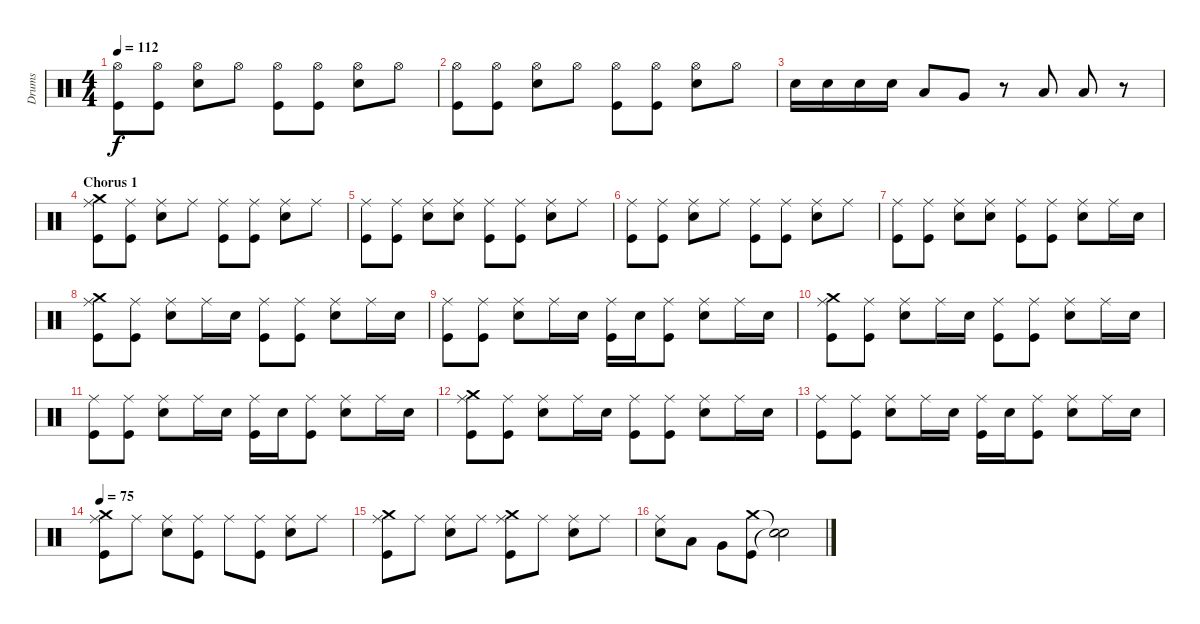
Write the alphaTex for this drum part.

\track ("Drums" "Drums") {instrument percussion}
\staff {score}
\articulation defaults
\ts (4 4)
\tempo 112
\clef neutral
\ks c
("Hi-Hat (open)" "Kick (hit)").8{dy f} ("Hi-Hat (open)" "Kick (hit)").8 ("Hi-Hat (open)" "Snare (hit) 2").8 "Hi-Hat (open)".8 ("Hi-Hat (open)" "Kick (hit)").8 ("Hi-Hat (open)" "Kick (hit)").8 ("Hi-Hat (open)" "Snare (hit) 2").8 "Hi-Hat (open)".8 |
("Hi-Hat (open)" "Kick (hit)").8 ("Hi-Hat (open)" "Kick (hit)").8 ("Hi-Hat (open)" "Snare (hit) 2").8 "Hi-Hat (open)".8 ("Hi-Hat (open)" "Kick (hit)").8 ("Hi-Hat (open)" "Kick (hit)").8 ("Hi-Hat (open)" "Snare (hit) 2").8 "Hi-Hat (open)".8 |
"Snare (hit) 2".16 "Snare (hit) 2".16 "Snare (hit) 2".16 "Snare (hit) 2".16 "Low Tom (hit)".8 "Very Low Tom (hit)".8 r.8 "Low Floor Tom (hit)".8 "Low Floor Tom (hit)".8 r.8 |
\section ("" "Chorus 1")
("Ride (middle)" "Crash medium (hit)" "Kick (hit)").8 ("Ride (middle)" "Kick (hit)").8 ("Ride (middle)" "Snare (hit) 2").8 "Ride (middle)".8 ("Ride (middle)" "Kick (hit)").8 ("Ride (middle)" "Kick (hit)").8 ("Ride (middle)" "Snare (hit) 2").8 "Ride (middle)".8 |
("Ride (middle)" "Kick (hit)").8 ("Ride (middle)" "Kick (hit)").8 ("Ride (middle)" "Snare (hit) 2").8 ("Ride (middle)" "Snare (hit) 2").8 ("Ride (middle)" "Kick (hit)").8 ("Ride (middle)" "Kick (hit)").8 ("Ride (middle)" "Snare (hit) 2").8 "Ride (middle)".8 |
("Ride (middle)" "Kick (hit)").8 ("Ride (middle)" "Kick (hit)").8 ("Ride (middle)" "Snare (hit) 2").8 "Ride (middle)".8 ("Ride (middle)" "Kick (hit)").8 ("Ride (middle)" "Kick (hit)").8 ("Ride (middle)" "Snare (hit) 2").8 "Ride (middle)".8 |
("Ride (middle)" "Kick (hit)").8 ("Ride (middle)" "Kick (hit)").8 ("Ride (middle)" "Snare (hit) 2").8 ("Ride (middle)" "Snare (hit) 2").8 ("Ride (middle)" "Kick (hit)").8 ("Ride (middle)" "Kick (hit)").8 ("Ride (middle)" "Snare (hit) 2").8 "Ride (middle)".16 "Snare (hit) 2".16 |
\section ("" "")
("Ride (middle)" "Crash medium (hit)" "Kick (hit)").8 ("Ride (middle)" "Kick (hit)").8 ("Ride (middle)" "Snare (hit) 2").8 "Ride (middle)".16 "Snare (hit) 2".16 ("Ride (middle)" "Kick (hit)").8 ("Ride (middle)" "Kick (hit)").8 ("Ride (middle)" "Snare (hit) 2").8 "Ride (middle)".16 "Snare (hit) 2".16 |
("Ride (middle)" "Kick (hit)").8 ("Ride (middle)" "Kick (hit)").8 ("Ride (middle)" "Snare (hit) 2").8 "Ride (middle)".16 "Snare (hit) 2".16 ("Ride (middle)" "Kick (hit)").16 "Snare (hit) 2".16 ("Ride (middle)" "Kick (hit)").8 ("Ride (middle)" "Snare (hit) 2").8 "Ride (middle)".16 "Snare (hit) 2".16 |
("Ride (middle)" "Crash medium (hit)" "Kick (hit)").8 ("Ride (middle)" "Kick (hit)").8 ("Ride (middle)" "Snare (hit) 2").8 "Ride (middle)".16 "Snare (hit) 2".16 ("Ride (middle)" "Kick (hit)").8 ("Ride (middle)" "Kick (hit)").8 ("Ride (middle)" "Snare (hit) 2").8 "Ride (middle)".16 "Snare (hit) 2".16 |
("Ride (middle)" "Kick (hit)").8 ("Ride (middle)" "Kick (hit)").8 ("Ride (middle)" "Snare (hit) 2").8 "Ride (middle)".16 "Snare (hit) 2".16 ("Ride (middle)" "Kick (hit)").16 "Snare (hit) 2".16 ("Ride (middle)" "Kick (hit)").8 ("Ride (middle)" "Snare (hit) 2").8 "Ride (middle)".16 "Snare (hit) 2".16 |
("Ride (middle)" "Crash medium (hit)" "Kick (hit)").8 ("Ride (middle)" "Kick (hit)").8 ("Ride (middle)" "Snare (hit) 2").8 "Ride (middle)".16 "Snare (hit) 2".16 ("Ride (middle)" "Kick (hit)").8 ("Ride (middle)" "Kick (hit)").8 ("Ride (middle)" "Snare (hit) 2").8 "Ride (middle)".16 "Snare (hit) 2".16 |
("Ride (middle)" "Kick (hit)").8 ("Ride (middle)" "Kick (hit)").8 ("Ride (middle)" "Snare (hit) 2").8 "Ride (middle)".16 "Snare (hit) 2".16 ("Ride (middle)" "Kick (hit)").16 "Snare (hit) 2".16 ("Ride (middle)" "Kick (hit)").8 ("Ride (middle)" "Snare (hit) 2").8 "Ride (middle)".16 "Snare (hit) 2".16 |
\tempo 75
("Ride (middle)" "Crash medium (hit)" "Kick (hit)").8 "Ride (middle)".8 ("Ride (middle)" "Snare (hit) 2").8 ("Ride (middle)" "Kick (hit)").8 "Ride (middle)".8 ("Ride (middle)" "Kick (hit)").8 ("Ride (middle)" "Snare (hit) 2").8 "Ride (middle)".8 |
("Ride (middle)" "Crash medium (hit)" "Kick (hit)").8 "Ride (middle)".8 ("Ride (middle)" "Snare (hit) 2").8 "Ride (middle)".8 ("Ride (middle)" "Crash medium (hit)" "Kick (hit)").8 "Ride (middle)".8 ("Ride (middle)" "Snare (hit) 2").8 "Ride (middle)".8 |
("Ride (middle)" "Snare (hit) 2").8 "Low Tom (hit)".8 "Very Low Tom (hit)".8 ("Crash medium (hit)" "Kick (hit)").8 ("Snare (hit)"{t} "Snare (hit)"{t}).2
